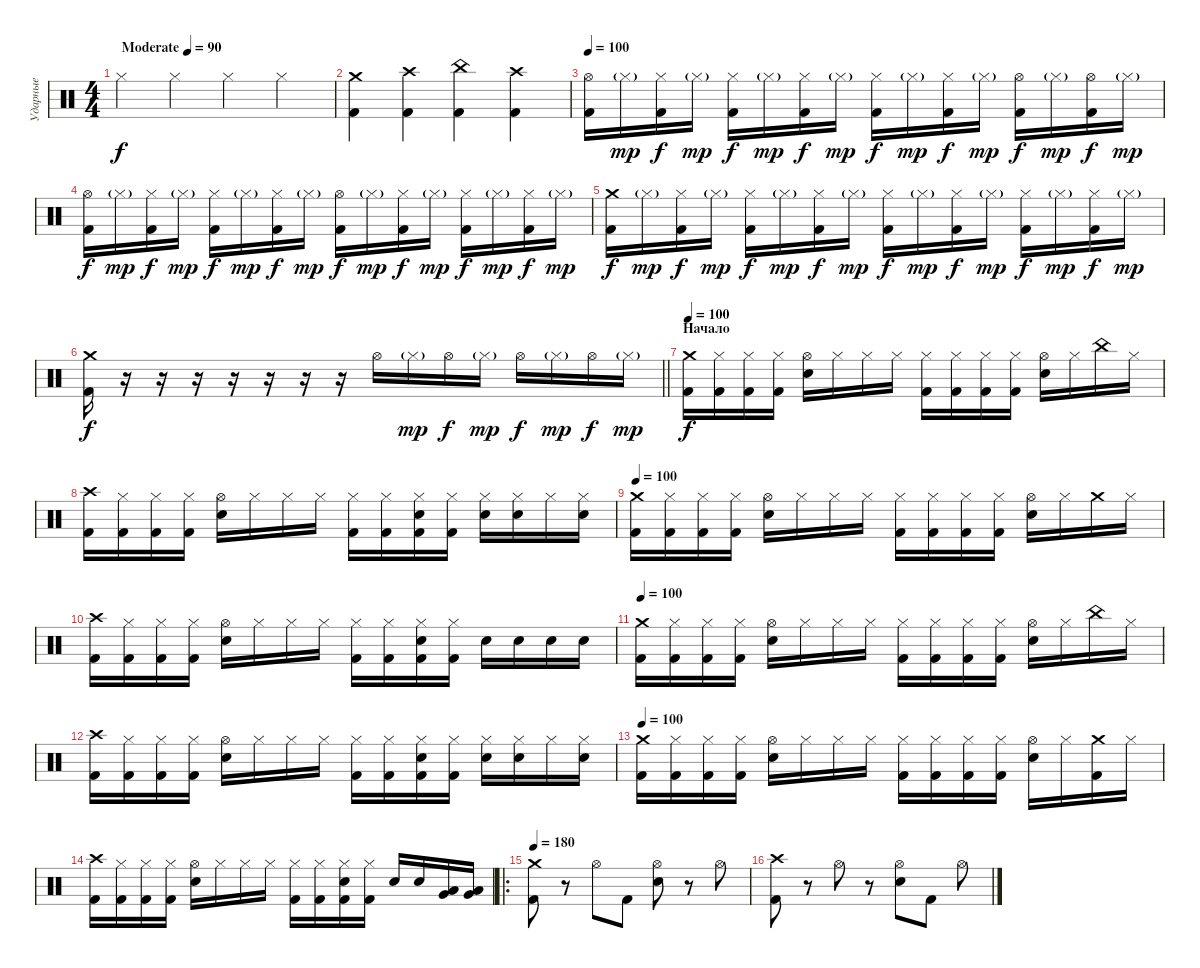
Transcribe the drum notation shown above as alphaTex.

\track ("Ударные" "Ударные") {instrument percussion}
\staff {score}
\articulation defaults
\ts (4 4)
\tempo (90 "Moderate")
\clef neutral
\ks c "Hi-Hat (closed)".4{dy f} "Hi-Hat (closed)".4 "Hi-Hat (closed)".4 "Hi-Hat (closed)".4
|
("Crash medium (hit)" "Kick (hit) 2").4 ("Crash high (hit)" "Kick (hit) 2").4 ("China (hit)" "Kick (hit) 2").4 ("Crash high (hit)" "Kick (hit) 2").4 |
\tempo 100
("Hi-Hat (open)" "Kick (hit) 2").16 "Hi-Hat (closed)"{g}.16{dy mp} ("Hi-Hat (closed)" "Kick (hit) 2").16{dy f} "Hi-Hat (closed)"{g}.16{dy mp} ("Hi-Hat (closed)" "Kick (hit) 2").16{dy f} "Hi-Hat (closed)"{g}.16{dy mp} ("Hi-Hat (closed)" "Kick (hit) 2").16{dy f} "Hi-Hat (closed)"{g}.16{dy mp} ("Hi-Hat (closed)" "Kick (hit) 2").16{dy f} "Hi-Hat (closed)"{g}.16{dy mp} ("Hi-Hat (closed)" "Kick (hit) 2").16{dy f} "Hi-Hat (closed)"{g}.16{dy mp} ("Hi-Hat (open)" "Kick (hit) 2").16{dy f} "Hi-Hat (closed)"{g}.16{dy mp} ("Hi-Hat (open)" "Kick (hit) 2").16{dy f} "Hi-Hat (closed)"{g}.16{dy mp} |
("Hi-Hat (open)" "Kick (hit) 2").16{dy f} "Hi-Hat (closed)"{g}.16{dy mp} ("Hi-Hat (closed)" "Kick (hit) 2").16{dy f} "Hi-Hat (closed)"{g}.16{dy mp} ("Hi-Hat (closed)" "Kick (hit) 2").16{dy f} "Hi-Hat (closed)"{g}.16{dy mp} ("Hi-Hat (closed)" "Kick (hit) 2").16{dy f} "Hi-Hat (closed)"{g}.16{dy mp} ("Hi-Hat (open)" "Kick (hit) 2").16{dy f} "Hi-Hat (closed)"{g}.16{dy mp} ("Hi-Hat (closed)" "Kick (hit) 2").16{dy f} "Hi-Hat (closed)"{g}.16{dy mp} ("Hi-Hat (closed)" "Kick (hit) 2").16{dy f} "Hi-Hat (closed)"{g}.16{dy mp} ("Hi-Hat (closed)" "Kick (hit) 2").16{dy f} "Hi-Hat (closed)"{g}.16{dy mp} |
("Crash medium (hit)" "Kick (hit) 2").16{dy f} "Hi-Hat (closed)"{g}.16{dy mp} ("Hi-Hat (closed)" "Kick (hit) 2").16{dy f} "Hi-Hat (closed)"{g}.16{dy mp} ("Hi-Hat (closed)" "Kick (hit) 2").16{dy f} "Hi-Hat (closed)"{g}.16{dy mp} ("Hi-Hat (closed)" "Kick (hit) 2").16{dy f} "Hi-Hat (closed)"{g}.16{dy mp} ("Hi-Hat (closed)" "Kick (hit) 2").16{dy f} "Hi-Hat (closed)"{g}.16{dy mp} ("Hi-Hat (closed)" "Kick (hit) 2").16{dy f} "Hi-Hat (closed)"{g}.16{dy mp} ("Hi-Hat (closed)" "Kick (hit) 2").16{dy f} "Hi-Hat (closed)"{g}.16{dy mp} ("Hi-Hat (closed)" "Kick (hit) 2").16{dy f} "Hi-Hat (closed)"{g}.16{dy mp} |
\barLineRight lightlight
("Crash medium (hit)" "Kick (hit) 2").16{dy f} r.16 r.16 r.16 r.16 r.16 r.16 r.16 "Hi-Hat (open)".16 "Hi-Hat (closed)"{g}.16{dy mp} "Hi-Hat (open)".16{dy f} "Hi-Hat (closed)"{g}.16{dy mp} "Hi-Hat (open)".16{dy f} "Hi-Hat (closed)"{g}.16{dy mp} "Hi-Hat (open)".16{dy f} "Hi-Hat (closed)"{g}.16{dy mp} |
\section ("" "Начало")
\tempo 100
("Crash medium (hit)" "Kick (hit) 2").16{dy f} ("Hi-Hat (closed)" "Kick (hit) 2").16 ("Hi-Hat (closed)" "Kick (hit) 2").16 ("Hi-Hat (closed)" "Kick (hit) 2").16 ("Hi-Hat (open)" "Snare (hit) 2").16 "Hi-Hat (closed)".16 "Hi-Hat (closed)".16 "Hi-Hat (closed)".16 ("Hi-Hat (closed)" "Kick (hit) 2").16 ("Hi-Hat (closed)" "Kick (hit) 2").16 ("Hi-Hat (closed)" "Kick (hit) 2").16 ("Hi-Hat (closed)" "Kick (hit) 2").16 ("Hi-Hat (open)" "Snare (hit) 2").16 "Hi-Hat (closed)".16 "China (hit)".16 "Hi-Hat (closed)".16 |
("Crash high (hit)" "Kick (hit) 2").16 ("Hi-Hat (closed)" "Kick (hit) 2").16 ("Hi-Hat (closed)" "Kick (hit) 2").16 ("Hi-Hat (closed)" "Kick (hit) 2").16 ("Hi-Hat (open)" "Snare (hit) 2").16 "Hi-Hat (closed)".16 "Hi-Hat (closed)".16 "Hi-Hat (closed)".16 ("Hi-Hat (closed)" "Kick (hit) 2").16 ("Hi-Hat (closed)" "Kick (hit) 2").16 ("Hi-Hat (closed)" "Snare (hit) 2" "Kick (hit) 2").16 ("Hi-Hat (closed)" "Kick (hit) 2").16 ("Hi-Hat (closed)" "Snare (hit) 2").16 ("Hi-Hat (closed)" "Snare (hit) 2").16 "Hi-Hat (closed)".16 ("Hi-Hat (closed)" "Snare (hit) 2").16 |
\tempo 100
("Crash medium (hit)" "Kick (hit) 2").16 ("Hi-Hat (closed)" "Kick (hit) 2").16 ("Hi-Hat (closed)" "Kick (hit) 2").16 ("Hi-Hat (closed)" "Kick (hit) 2").16 ("Hi-Hat (open)" "Snare (hit) 2").16 "Hi-Hat (closed)".16 "Hi-Hat (closed)".16 "Hi-Hat (closed)".16 ("Hi-Hat (closed)" "Kick (hit) 2").16 ("Hi-Hat (closed)" "Kick (hit) 2").16 ("Hi-Hat (closed)" "Kick (hit) 2").16 ("Hi-Hat (closed)" "Kick (hit) 2").16 ("Hi-Hat (open)" "Snare (hit) 2").16 "Hi-Hat (closed)".16 "Crash medium (hit)".16 "Hi-Hat (closed)".16 |
("Crash high (hit)" "Kick (hit) 2").16 ("Hi-Hat (closed)" "Kick (hit) 2").16 ("Hi-Hat (closed)" "Kick (hit) 2").16 ("Hi-Hat (closed)" "Kick (hit) 2").16 ("Hi-Hat (open)" "Snare (hit) 2").16 "Hi-Hat (closed)".16 "Hi-Hat (closed)".16 "Hi-Hat (closed)".16 ("Hi-Hat (closed)" "Kick (hit) 2").16 ("Hi-Hat (closed)" "Kick (hit) 2").16 ("Hi-Hat (closed)" "Snare (hit) 2" "Kick (hit) 2").16 ("Hi-Hat (closed)" "Kick (hit) 2").16 "Snare (hit) 2".16 "Snare (hit) 2".16 "Snare (hit) 2".16 "Snare (hit) 2".16 |
\tempo 100
("Crash medium (hit)" "Kick (hit) 2").16 ("Hi-Hat (closed)" "Kick (hit) 2").16 ("Hi-Hat (closed)" "Kick (hit) 2").16 ("Hi-Hat (closed)" "Kick (hit) 2").16 ("Hi-Hat (open)" "Snare (hit) 2").16 "Hi-Hat (closed)".16 "Hi-Hat (closed)".16 "Hi-Hat (closed)".16 ("Hi-Hat (closed)" "Kick (hit) 2").16 ("Hi-Hat (closed)" "Kick (hit) 2").16 ("Hi-Hat (closed)" "Kick (hit) 2").16 ("Hi-Hat (closed)" "Kick (hit) 2").16 ("Hi-Hat (open)" "Snare (hit) 2").16 "Hi-Hat (closed)".16 "China (hit)".16 "Hi-Hat (closed)".16 |
("Crash high (hit)" "Kick (hit) 2").16 ("Hi-Hat (closed)" "Kick (hit) 2").16 ("Hi-Hat (closed)" "Kick (hit) 2").16 ("Hi-Hat (closed)" "Kick (hit) 2").16 ("Hi-Hat (open)" "Snare (hit) 2").16 "Hi-Hat (closed)".16 "Hi-Hat (closed)".16 "Hi-Hat (closed)".16 ("Hi-Hat (closed)" "Kick (hit) 2").16 ("Hi-Hat (closed)" "Kick (hit) 2").16 ("Hi-Hat (closed)" "Snare (hit) 2" "Kick (hit) 2").16 ("Hi-Hat (closed)" "Kick (hit) 2").16 ("Hi-Hat (closed)" "Snare (hit) 2").16 ("Hi-Hat (closed)" "Snare (hit) 2").16 "Hi-Hat (closed)".16 ("Hi-Hat (closed)" "Snare (hit) 2").16 |
\tempo 100
("Crash medium (hit)" "Kick (hit) 2").16 ("Hi-Hat (closed)" "Kick (hit) 2").16 ("Hi-Hat (closed)" "Kick (hit) 2").16 ("Hi-Hat (closed)" "Kick (hit) 2").16 ("Hi-Hat (open)" "Snare (hit) 2").16 "Hi-Hat (closed)".16 "Hi-Hat (closed)".16 "Hi-Hat (closed)".16 ("Hi-Hat (closed)" "Kick (hit) 2").16 ("Hi-Hat (closed)" "Kick (hit) 2").16 ("Hi-Hat (closed)" "Kick (hit) 2").16 ("Hi-Hat (closed)" "Kick (hit) 2").16 ("Hi-Hat (open)" "Snare (hit) 2").16 "Hi-Hat (closed)".16 ("Crash medium (hit)" "Kick (hit) 2").16 "Hi-Hat (closed)".16 |
("Crash high (hit)" "Kick (hit) 2").16 ("Hi-Hat (closed)" "Kick (hit) 2").16 ("Hi-Hat (closed)" "Kick (hit) 2").16 ("Hi-Hat (closed)" "Kick (hit) 2").16 ("Hi-Hat (open)" "Snare (hit) 2").16 "Hi-Hat (closed)".16 "Hi-Hat (closed)".16 "Hi-Hat (closed)".16 ("Hi-Hat (closed)" "Kick (hit) 2").16 ("Hi-Hat (closed)" "Kick (hit) 2").16 ("Hi-Hat (closed)" "Snare (hit) 2" "Kick (hit) 2").16 ("Hi-Hat (closed)" "Kick (hit) 2").16 "Snare (hit) 2".16 "Snare (hit) 2".16 ("Low Tom (hit)" "Very Low Tom (hit)").16 ("Low Tom (hit)" "Very Low Tom (hit)").16 |
\ro
\tempo 180
("Crash medium (hit)" "Kick (hit) 2").8 r.8 "Hi-Hat (open)".8 "Kick (hit) 2".8 ("Hi-Hat (open)" "Electric Snare (hit)").8 r.8 "Hi-Hat (open)".8 |
("Crash high (hit)" "Kick (hit) 2").8 r.8 "Hi-Hat (open)".8 r.8 ("Hi-Hat (open)" "Electric Snare (hit)").8 "Kick (hit) 2".8 "Hi-Hat (open)".8
